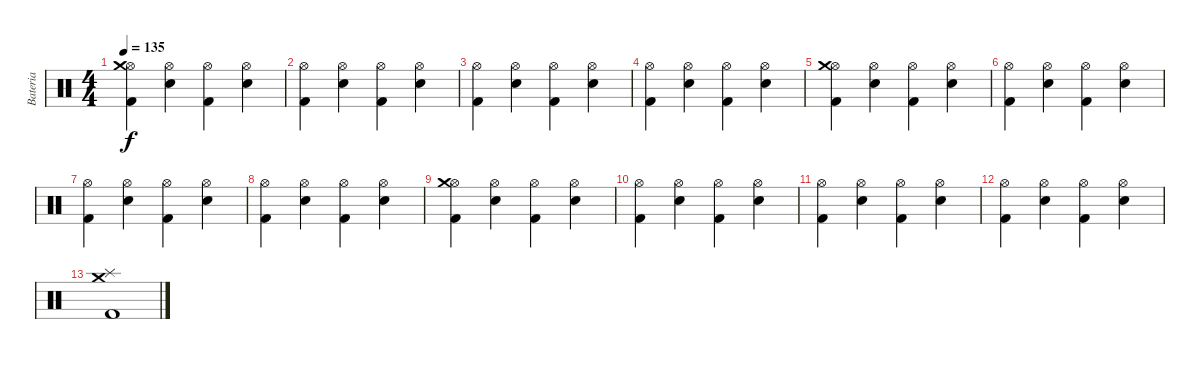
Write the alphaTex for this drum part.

\track ("Bateria" "Bateria") {instrument percussion}
\staff {score}
\articulation defaults
\ts (4 4)
\tempo 135
\clef neutral
\ks c
("Kick (hit) 2" "Hi-Hat (open)" "Crash medium (hit)").4{dy f} ("Electric Snare (hit)" "Hi-Hat (open)").4 ("Kick (hit) 2" "Hi-Hat (open)").4 ("Electric Snare (hit)" "Hi-Hat (open)").4 |
("Kick (hit) 2" "Hi-Hat (open)").4 ("Electric Snare (hit)" "Hi-Hat (open)").4 ("Kick (hit) 2" "Hi-Hat (open)").4 ("Electric Snare (hit)" "Hi-Hat (open)").4 |
("Kick (hit) 2" "Hi-Hat (open)").4 ("Electric Snare (hit)" "Hi-Hat (open)").4 ("Kick (hit) 2" "Hi-Hat (open)").4 ("Electric Snare (hit)" "Hi-Hat (open)").4 |
("Kick (hit) 2" "Hi-Hat (open)").4 ("Electric Snare (hit)" "Hi-Hat (open)").4 ("Kick (hit) 2" "Hi-Hat (open)").4 ("Electric Snare (hit)" "Hi-Hat (open)").4 |
("Kick (hit) 2" "Hi-Hat (open)" "Crash medium (hit)").4 ("Electric Snare (hit)" "Hi-Hat (open)").4 ("Kick (hit) 2" "Hi-Hat (open)").4 ("Electric Snare (hit)" "Hi-Hat (open)").4 |
("Kick (hit) 2" "Hi-Hat (open)").4 ("Electric Snare (hit)" "Hi-Hat (open)").4 ("Kick (hit) 2" "Hi-Hat (open)").4 ("Electric Snare (hit)" "Hi-Hat (open)").4 |
("Kick (hit) 2" "Hi-Hat (open)").4 ("Electric Snare (hit)" "Hi-Hat (open)").4 ("Kick (hit) 2" "Hi-Hat (open)").4 ("Electric Snare (hit)" "Hi-Hat (open)").4 |
("Kick (hit) 2" "Hi-Hat (open)").4 ("Electric Snare (hit)" "Hi-Hat (open)").4 ("Kick (hit) 2" "Hi-Hat (open)").4 ("Electric Snare (hit)" "Hi-Hat (open)").4 |
("Kick (hit) 2" "Hi-Hat (open)" "Crash medium (hit)").4 ("Electric Snare (hit)" "Hi-Hat (open)").4 ("Kick (hit) 2" "Hi-Hat (open)").4 ("Electric Snare (hit)" "Hi-Hat (open)").4 |
("Kick (hit) 2" "Hi-Hat (open)").4 ("Electric Snare (hit)" "Hi-Hat (open)").4 ("Kick (hit) 2" "Hi-Hat (open)").4 ("Electric Snare (hit)" "Hi-Hat (open)").4 |
("Kick (hit) 2" "Hi-Hat (open)").4 ("Electric Snare (hit)" "Hi-Hat (open)").4 ("Kick (hit) 2" "Hi-Hat (open)").4 ("Electric Snare (hit)" "Hi-Hat (open)").4 |
("Kick (hit) 2" "Hi-Hat (open)").4 ("Electric Snare (hit)" "Hi-Hat (open)").4 ("Kick (hit) 2" "Hi-Hat (open)").4 ("Electric Snare (hit)" "Hi-Hat (open)").4 |
("Kick (hit) 2" "Crash medium (hit)" "Splash (hit)").1
